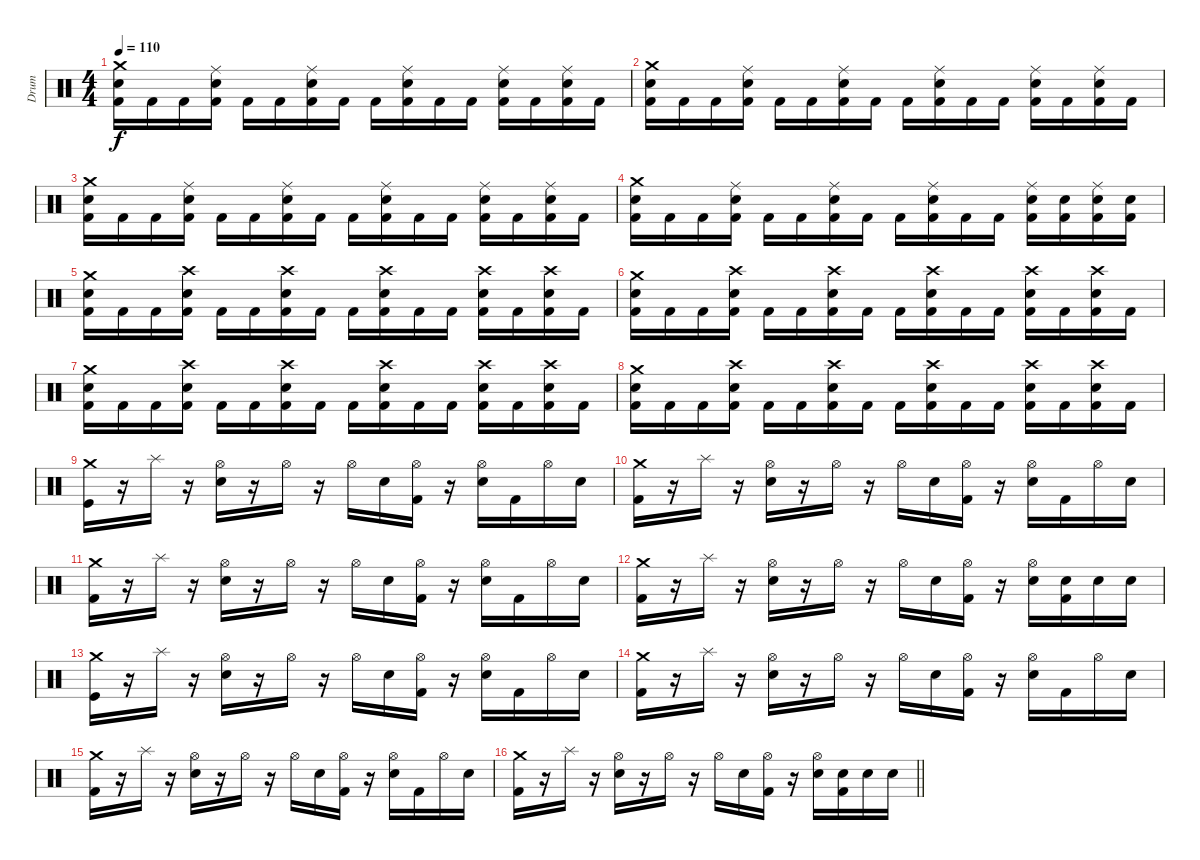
\track ("Drum" "Drum") {instrument percussion}
\staff {score}
\articulation defaults
\ts (4 4)
\tempo 110
\clef neutral
\ks c
("Crash medium (hit)" "Electric Snare (hit)" "Kick (hit) 2").16{dy f} "Kick (hit) 2".16 "Kick (hit) 2".16 ("Ride (middle)" "Electric Snare (hit)" "Kick (hit) 2").16 "Kick (hit) 2".16 "Kick (hit) 2".16 ("Ride (middle)" "Electric Snare (hit)" "Kick (hit) 2").16 "Kick (hit) 2".16 "Kick (hit) 2".16 ("Ride (middle)" "Electric Snare (hit)" "Kick (hit) 2").16 "Kick (hit) 2".16 "Kick (hit) 2".16 ("Ride (middle)" "Electric Snare (hit)" "Kick (hit) 2").16 "Kick (hit) 2".16 ("Ride (middle)" "Electric Snare (hit)" "Kick (hit) 2").16 "Kick (hit) 2".16 |
("Crash medium (hit)" "Electric Snare (hit)" "Kick (hit) 2").16 "Kick (hit) 2".16 "Kick (hit) 2".16 ("Ride (middle)" "Electric Snare (hit)" "Kick (hit) 2").16 "Kick (hit) 2".16 "Kick (hit) 2".16 ("Ride (middle)" "Electric Snare (hit)" "Kick (hit) 2").16 "Kick (hit) 2".16 "Kick (hit) 2".16 ("Ride (middle)" "Electric Snare (hit)" "Kick (hit) 2").16 "Kick (hit) 2".16 "Kick (hit) 2".16 ("Ride (middle)" "Electric Snare (hit)" "Kick (hit) 2").16 "Kick (hit) 2".16 ("Ride (middle)" "Electric Snare (hit)" "Kick (hit) 2").16 "Kick (hit) 2".16 |
("Crash medium (hit)" "Electric Snare (hit)" "Kick (hit) 2").16 "Kick (hit) 2".16 "Kick (hit) 2".16 ("Ride (middle)" "Electric Snare (hit)" "Kick (hit) 2").16 "Kick (hit) 2".16 "Kick (hit) 2".16 ("Ride (middle)" "Electric Snare (hit)" "Kick (hit) 2").16 "Kick (hit) 2".16 "Kick (hit) 2".16 ("Ride (middle)" "Electric Snare (hit)" "Kick (hit) 2").16 "Kick (hit) 2".16 "Kick (hit) 2".16 ("Ride (middle)" "Electric Snare (hit)" "Kick (hit) 2").16 "Kick (hit) 2".16 ("Ride (middle)" "Electric Snare (hit)" "Kick (hit) 2").16 "Kick (hit) 2".16 |
("Crash medium (hit)" "Electric Snare (hit)" "Kick (hit) 2").16 "Kick (hit) 2".16 "Kick (hit) 2".16 ("Ride (middle)" "Electric Snare (hit)" "Kick (hit) 2").16 "Kick (hit) 2".16 "Kick (hit) 2".16 ("Ride (middle)" "Electric Snare (hit)" "Kick (hit) 2").16 "Kick (hit) 2".16 "Kick (hit) 2".16 ("Ride (middle)" "Electric Snare (hit)" "Kick (hit) 2").16 "Kick (hit) 2".16 "Kick (hit) 2".16 ("Ride (middle)" "Electric Snare (hit)" "Kick (hit) 2").16 ("Electric Snare (hit)" "Kick (hit) 2").16 ("Ride (middle)" "Electric Snare (hit)" "Kick (hit) 2").16 ("Electric Snare (hit)" "Kick (hit) 2").16 |
("Crash medium (hit)" "Electric Snare (hit)" "Kick (hit) 2").16 "Kick (hit) 2".16 "Kick (hit) 2".16 ("Crash high (hit)" "Electric Snare (hit)" "Kick (hit) 2").16 "Kick (hit) 2".16 "Kick (hit) 2".16 ("Crash high (hit)" "Electric Snare (hit)" "Kick (hit) 2").16 "Kick (hit) 2".16 "Kick (hit) 2".16 ("Crash high (hit)" "Electric Snare (hit)" "Kick (hit) 2").16 "Kick (hit) 2".16 "Kick (hit) 2".16 ("Crash high (hit)" "Electric Snare (hit)" "Kick (hit) 2").16 "Kick (hit) 2".16 ("Crash high (hit)" "Electric Snare (hit)" "Kick (hit) 2").16 "Kick (hit) 2".16 |
("Crash medium (hit)" "Electric Snare (hit)" "Kick (hit) 2").16 "Kick (hit) 2".16 "Kick (hit) 2".16 ("Crash high (hit)" "Electric Snare (hit)" "Kick (hit) 2").16 "Kick (hit) 2".16 "Kick (hit) 2".16 ("Crash high (hit)" "Electric Snare (hit)" "Kick (hit) 2").16 "Kick (hit) 2".16 "Kick (hit) 2".16 ("Crash high (hit)" "Electric Snare (hit)" "Kick (hit) 2").16 "Kick (hit) 2".16 "Kick (hit) 2".16 ("Crash high (hit)" "Electric Snare (hit)" "Kick (hit) 2").16 "Kick (hit) 2".16 ("Crash high (hit)" "Electric Snare (hit)" "Kick (hit) 2").16 "Kick (hit) 2".16 |
("Crash medium (hit)" "Electric Snare (hit)" "Kick (hit) 2").16 "Kick (hit) 2".16 "Kick (hit) 2".16 ("Crash high (hit)" "Electric Snare (hit)" "Kick (hit) 2").16 "Kick (hit) 2".16 "Kick (hit) 2".16 ("Crash high (hit)" "Electric Snare (hit)" "Kick (hit) 2").16 "Kick (hit) 2".16 "Kick (hit) 2".16 ("Crash high (hit)" "Electric Snare (hit)" "Kick (hit) 2").16 "Kick (hit) 2".16 "Kick (hit) 2".16 ("Crash high (hit)" "Electric Snare (hit)" "Kick (hit) 2").16 "Kick (hit) 2".16 ("Crash high (hit)" "Electric Snare (hit)" "Kick (hit) 2").16 "Kick (hit) 2".16 |
("Crash medium (hit)" "Electric Snare (hit)" "Kick (hit) 2").16 "Kick (hit) 2".16 "Kick (hit) 2".16 ("Crash high (hit)" "Electric Snare (hit)" "Kick (hit) 2").16 "Kick (hit) 2".16 "Kick (hit) 2".16 ("Crash high (hit)" "Electric Snare (hit)" "Kick (hit) 2").16 "Kick (hit) 2".16 "Kick (hit) 2".16 ("Crash high (hit)" "Electric Snare (hit)" "Kick (hit) 2").16 "Kick (hit) 2".16 "Kick (hit) 2".16 ("Crash high (hit)" "Electric Snare (hit)" "Kick (hit) 2").16 "Kick (hit) 2".16 ("Crash high (hit)" "Electric Snare (hit)" "Kick (hit) 2").16 "Kick (hit) 2".16 |
("Crash medium (hit)" "Kick (hit)").16 r.16 "Splash (hit)".16 r.16 ("Hi-Hat (open)" "Electric Snare (hit)").16 r.16 "Hi-Hat (open)".16 r.16 "Hi-Hat (open)".16 "Electric Snare (hit)".16 ("Hi-Hat (open)" "Kick (hit) 2").16 r.16 ("Hi-Hat (open)" "Electric Snare (hit)").16 "Kick (hit) 2".16 "Hi-Hat (open)".16 "Electric Snare (hit)".16 |
("Crash medium (hit)" "Kick (hit) 2").16 r.16 "Splash (hit)".16 r.16 ("Hi-Hat (open)" "Electric Snare (hit)").16 r.16 "Hi-Hat (open)".16 r.16 "Hi-Hat (open)".16 "Electric Snare (hit)".16 ("Hi-Hat (open)" "Kick (hit) 2").16 r.16 ("Hi-Hat (open)" "Electric Snare (hit)").16 "Kick (hit) 2".16 "Hi-Hat (open)".16 "Electric Snare (hit)".16 |
("Crash medium (hit)" "Kick (hit) 2").16 r.16 "Splash (hit)".16 r.16 ("Hi-Hat (open)" "Electric Snare (hit)").16 r.16 "Hi-Hat (open)".16 r.16 "Hi-Hat (open)".16 "Electric Snare (hit)".16 ("Hi-Hat (open)" "Kick (hit) 2").16 r.16 ("Hi-Hat (open)" "Electric Snare (hit)").16 "Kick (hit) 2".16 "Hi-Hat (open)".16 "Electric Snare (hit)".16 |
("Crash medium (hit)" "Kick (hit) 2").16 r.16 "Splash (hit)".16 r.16 ("Hi-Hat (open)" "Electric Snare (hit)").16 r.16 "Hi-Hat (open)".16 r.16 "Hi-Hat (open)".16 "Electric Snare (hit)".16 ("Hi-Hat (open)" "Kick (hit) 2").16 r.16 ("Hi-Hat (open)" "Electric Snare (hit)").16 ("Electric Snare (hit)" "Kick (hit) 2").16 "Electric Snare (hit)".16 "Electric Snare (hit)".16 |
("Crash medium (hit)" "Kick (hit)").16 r.16 "Splash (hit)".16 r.16 ("Hi-Hat (open)" "Electric Snare (hit)").16 r.16 "Hi-Hat (open)".16 r.16 "Hi-Hat (open)".16 "Electric Snare (hit)".16 ("Hi-Hat (open)" "Kick (hit) 2").16 r.16 ("Hi-Hat (open)" "Electric Snare (hit)").16 "Kick (hit) 2".16 "Hi-Hat (open)".16 "Electric Snare (hit)".16 |
("Crash medium (hit)" "Kick (hit) 2").16 r.16 "Splash (hit)".16 r.16 ("Hi-Hat (open)" "Electric Snare (hit)").16 r.16 "Hi-Hat (open)".16 r.16 "Hi-Hat (open)".16 "Electric Snare (hit)".16 ("Hi-Hat (open)" "Kick (hit) 2").16 r.16 ("Hi-Hat (open)" "Electric Snare (hit)").16 "Kick (hit) 2".16 "Hi-Hat (open)".16 "Electric Snare (hit)".16 |
("Crash medium (hit)" "Kick (hit) 2").16 r.16 "Splash (hit)".16 r.16 ("Hi-Hat (open)" "Electric Snare (hit)").16 r.16 "Hi-Hat (open)".16 r.16 "Hi-Hat (open)".16 "Electric Snare (hit)".16 ("Hi-Hat (open)" "Kick (hit) 2").16 r.16 ("Hi-Hat (open)" "Electric Snare (hit)").16 "Kick (hit) 2".16 "Hi-Hat (open)".16 "Electric Snare (hit)".16 |
\barLineRight lightlight
("Crash medium (hit)" "Kick (hit) 2").16 r.16 "Splash (hit)".16 r.16 ("Hi-Hat (open)" "Electric Snare (hit)").16 r.16 "Hi-Hat (open)".16 r.16 "Hi-Hat (open)".16 "Electric Snare (hit)".16 ("Hi-Hat (open)" "Kick (hit) 2").16 r.16 ("Hi-Hat (open)" "Electric Snare (hit)").16 ("Electric Snare (hit)" "Kick (hit) 2").16 "Electric Snare (hit)".16 "Electric Snare (hit)".16
